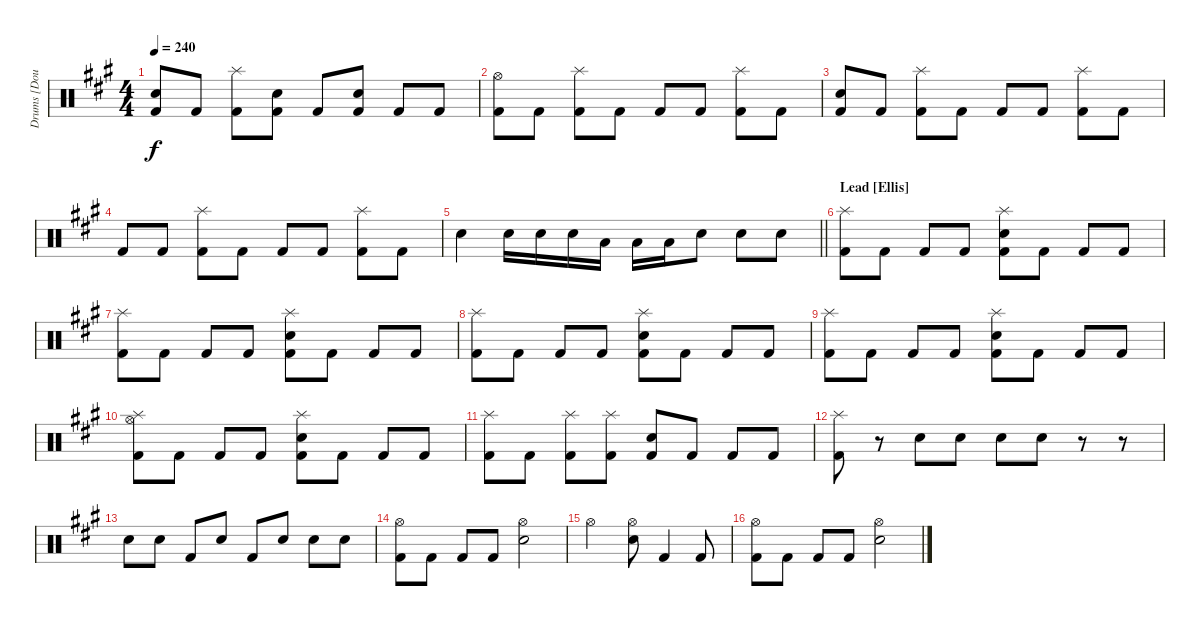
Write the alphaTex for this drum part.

\track ("Drums [Doug Anderson]" "Drums [Dou") {instrument percussion}
\staff {score}
\articulation defaults
\ts (4 4)
\tempo 240
\clef neutral
\ks f#minor
("Electric Snare (hit)" "Kick (hit) 2").8{dy f} "Kick (hit) 2".8 ("Splash (hit)" "Kick (hit) 2").8 ("Electric Snare (hit)" "Kick (hit) 2").8 "Kick (hit) 2".8 ("Electric Snare (hit)" "Kick (hit) 2").8 "Kick (hit) 2".8 "Kick (hit) 2".8 |
("Hi-Hat (open)" "Kick (hit) 2").8 "Kick (hit) 2".8 ("Splash (hit)" "Kick (hit) 2").8 "Kick (hit) 2".8 "Kick (hit) 2".8 "Kick (hit) 2".8 ("Splash (hit)" "Kick (hit) 2").8 "Kick (hit) 2".8 |
("Electric Snare (hit)" "Kick (hit) 2").8 "Kick (hit) 2".8 ("Splash (hit)" "Kick (hit) 2").8 "Kick (hit) 2".8 "Kick (hit) 2".8 "Kick (hit) 2".8 ("Splash (hit)" "Kick (hit) 2").8 "Kick (hit) 2".8 |
"Kick (hit) 2".8 "Kick (hit) 2".8 ("Splash (hit)" "Kick (hit) 2").8 "Kick (hit) 2".8 "Kick (hit) 2".8 "Kick (hit) 2".8 ("Splash (hit)" "Kick (hit) 2").8 "Kick (hit) 2".8 |
\barLineRight lightlight "Electric Snare (hit)".4 "Electric Snare (hit)".16 "Electric Snare (hit)".16 "Electric Snare (hit)".16 "Low Tom (hit)".16 "Low Tom (hit)".16 "Low Tom (hit)".16 "Electric Snare (hit)".8 "Electric Snare (hit)".8 "Electric Snare (hit)".8
|
\section ("" "Lead [Ellis]")
("Splash (hit)" "Kick (hit) 2").8 "Kick (hit) 2".8 "Kick (hit) 2".8 "Kick (hit) 2".8 ("Splash (hit)" "Electric Snare (hit)" "Kick (hit) 2").8 "Kick (hit) 2".8 "Kick (hit) 2".8 "Kick (hit) 2".8 |
("Splash (hit)" "Kick (hit) 2").8 "Kick (hit) 2".8 "Kick (hit) 2".8 "Kick (hit) 2".8 ("Splash (hit)" "Electric Snare (hit)" "Kick (hit) 2").8 "Kick (hit) 2".8 "Kick (hit) 2".8 "Kick (hit) 2".8 |
("Splash (hit)" "Kick (hit) 2").8 "Kick (hit) 2".8 "Kick (hit) 2".8 "Kick (hit) 2".8 ("Splash (hit)" "Electric Snare (hit)" "Kick (hit) 2").8 "Kick (hit) 2".8 "Kick (hit) 2".8 "Kick (hit) 2".8 |
("Splash (hit)" "Kick (hit) 2").8 "Kick (hit) 2".8 "Kick (hit) 2".8 "Kick (hit) 2".8 ("Splash (hit)" "Electric Snare (hit)" "Kick (hit) 2").8 "Kick (hit) 2".8 "Kick (hit) 2".8 "Kick (hit) 2".8 |
("Hi-Hat (open)" "Splash (hit)" "Kick (hit) 2").8 "Kick (hit) 2".8 "Kick (hit) 2".8 "Kick (hit) 2".8 ("Splash (hit)" "Electric Snare (hit)" "Kick (hit) 2").8 "Kick (hit) 2".8 "Kick (hit) 2".8 "Kick (hit) 2".8 |
("Splash (hit)" "Kick (hit) 2").8 "Kick (hit) 2".8 ("Splash (hit)" "Kick (hit) 2").8 ("Splash (hit)" "Kick (hit) 2").8 ("Electric Snare (hit)" "Kick (hit) 2").8 "Kick (hit) 2".8 "Kick (hit) 2".8 "Kick (hit) 2".8 |
("Splash (hit)" "Kick (hit) 2").8 r.8 "Electric Snare (hit)".8 "Electric Snare (hit)".8 "Electric Snare (hit)".8 "Electric Snare (hit)".8 r.8 r.8 |
"Electric Snare (hit)".8 "Electric Snare (hit)".8 "Kick (hit) 2".8 "Electric Snare (hit)".8 "Kick (hit) 2".8 "Electric Snare (hit)".8 "Electric Snare (hit)".8 "Electric Snare (hit)".8 |
("Hi-Hat (open)" "Kick (hit) 2").8 "Kick (hit) 2".8 "Kick (hit) 2".8 "Kick (hit) 2".8 ("Hi-Hat (open)" "Electric Snare (hit)").2 |
"Hi-Hat (open)".2 ("Hi-Hat (open)" "Electric Snare (hit)").8 "Kick (hit) 2".4 "Kick (hit) 2".8 |
("Hi-Hat (open)" "Kick (hit) 2").8 "Kick (hit) 2".8 "Kick (hit) 2".8 "Kick (hit) 2".8 ("Hi-Hat (open)" "Electric Snare (hit)").2
